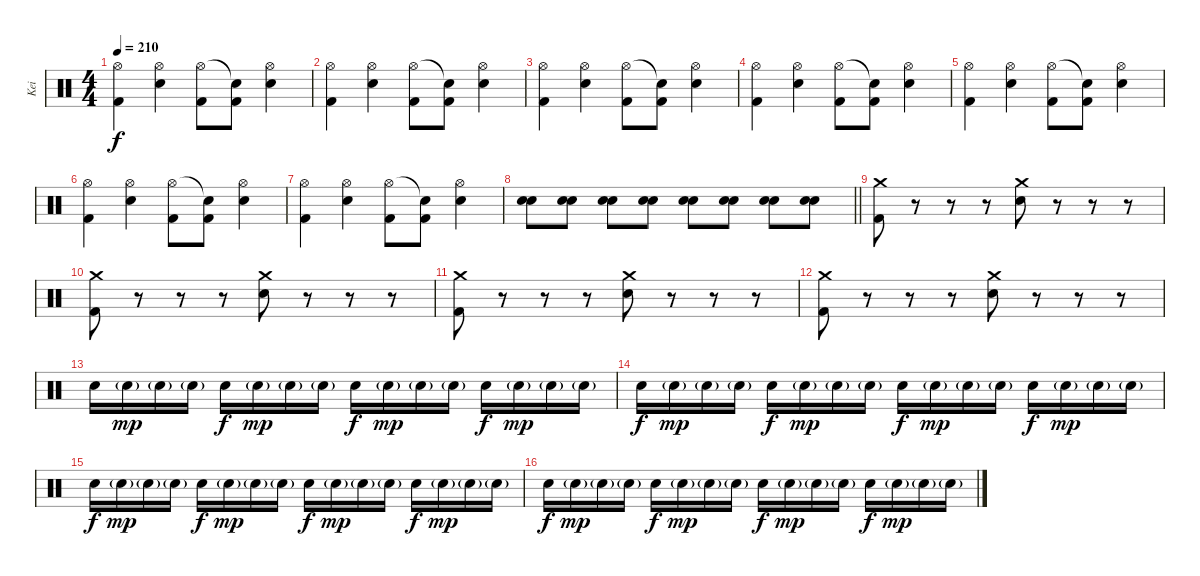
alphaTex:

\track ("Kei" "Kei") {instrument percussion}
\staff {score}
\articulation defaults
\ts (4 4)
\tempo 210
\clef neutral
\ks c
("Hi-Hat (open)" "Kick (hit) 2").4{dy f} ("Hi-Hat (open)" "Electric Snare (hit)").4 ("Hi-Hat (open)" "Kick (hit) 2").8 ("Snare (hit)"{t} "Kick (hit) 2").8 ("Hi-Hat (open)" "Electric Snare (hit)").4 |
("Hi-Hat (open)" "Kick (hit) 2").4 ("Hi-Hat (open)" "Electric Snare (hit)").4 ("Hi-Hat (open)" "Kick (hit) 2").8 ("Snare (hit)"{t} "Kick (hit) 2").8 ("Hi-Hat (open)" "Electric Snare (hit)").4 |
("Hi-Hat (open)" "Kick (hit) 2").4 ("Hi-Hat (open)" "Electric Snare (hit)").4 ("Hi-Hat (open)" "Kick (hit) 2").8 ("Snare (hit)"{t} "Kick (hit) 2").8 ("Hi-Hat (open)" "Electric Snare (hit)").4 |
("Hi-Hat (open)" "Kick (hit) 2").4 ("Hi-Hat (open)" "Electric Snare (hit)").4 ("Hi-Hat (open)" "Kick (hit) 2").8 ("Snare (hit)"{t} "Kick (hit) 2").8 ("Hi-Hat (open)" "Electric Snare (hit)").4 |
("Hi-Hat (open)" "Kick (hit) 2").4 ("Hi-Hat (open)" "Electric Snare (hit)").4 ("Hi-Hat (open)" "Kick (hit) 2").8 ("Snare (hit)"{t} "Kick (hit) 2").8 ("Hi-Hat (open)" "Electric Snare (hit)").4 |
("Hi-Hat (open)" "Kick (hit) 2").4 ("Hi-Hat (open)" "Electric Snare (hit)").4 ("Hi-Hat (open)" "Kick (hit) 2").8 ("Snare (hit)"{t} "Kick (hit) 2").8 ("Hi-Hat (open)" "Electric Snare (hit)").4 |
("Hi-Hat (open)" "Kick (hit) 2").4 ("Hi-Hat (open)" "Electric Snare (hit)").4 ("Hi-Hat (open)" "Kick (hit) 2").8 ("Snare (hit)"{t} "Kick (hit) 2").8 ("Hi-Hat (open)" "Electric Snare (hit)").4 |
\barLineRight lightlight
("Electric Snare (hit)" "Electric Snare (hit)").8 ("Electric Snare (hit)" "Electric Snare (hit)").8 ("Electric Snare (hit)" "Electric Snare (hit)").8 ("Electric Snare (hit)" "Electric Snare (hit)").8 ("Electric Snare (hit)" "Electric Snare (hit)").8 ("Electric Snare (hit)" "Electric Snare (hit)").8 ("Electric Snare (hit)" "Electric Snare (hit)").8 ("Electric Snare (hit)" "Electric Snare (hit)").8 |
("Crash medium (hit)" "Kick (hit) 2").8 r.8 r.8 r.8 ("Crash medium (hit)" "Electric Snare (hit)").8 r.8 r.8 r.8 |
("Crash medium (hit)" "Kick (hit) 2").8 r.8 r.8 r.8 ("Crash medium (hit)" "Electric Snare (hit)").8 r.8 r.8 r.8 |
("Crash medium (hit)" "Kick (hit) 2").8 r.8 r.8 r.8 ("Crash medium (hit)" "Electric Snare (hit)").8 r.8 r.8 r.8 |
("Crash medium (hit)" "Kick (hit) 2").8 r.8 r.8 r.8 ("Crash medium (hit)" "Electric Snare (hit)").8 r.8 r.8 r.8 |
"Electric Snare (hit)".16 "Electric Snare (hit)"{g}.16{dy mp} "Electric Snare (hit)"{g}.16 "Electric Snare (hit)"{g}.16 "Electric Snare (hit)".16{dy f} "Electric Snare (hit)"{g}.16{dy mp} "Electric Snare (hit)"{g}.16 "Electric Snare (hit)"{g}.16 "Electric Snare (hit)".16{dy f} "Electric Snare (hit)"{g}.16{dy mp} "Electric Snare (hit)"{g}.16 "Electric Snare (hit)"{g}.16 "Electric Snare (hit)".16{dy f} "Electric Snare (hit)"{g}.16{dy mp} "Electric Snare (hit)"{g}.16 "Electric Snare (hit)"{g}.16 |
"Electric Snare (hit)".16{dy f} "Electric Snare (hit)"{g}.16{dy mp} "Electric Snare (hit)"{g}.16 "Electric Snare (hit)"{g}.16 "Electric Snare (hit)".16{dy f} "Electric Snare (hit)"{g}.16{dy mp} "Electric Snare (hit)"{g}.16 "Electric Snare (hit)"{g}.16 "Electric Snare (hit)".16{dy f} "Electric Snare (hit)"{g}.16{dy mp} "Electric Snare (hit)"{g}.16 "Electric Snare (hit)"{g}.16 "Electric Snare (hit)".16{dy f} "Electric Snare (hit)"{g}.16{dy mp} "Electric Snare (hit)"{g}.16 "Electric Snare (hit)"{g}.16 |
"Electric Snare (hit)".16{dy f} "Electric Snare (hit)"{g}.16{dy mp} "Electric Snare (hit)"{g}.16 "Electric Snare (hit)"{g}.16 "Electric Snare (hit)".16{dy f} "Electric Snare (hit)"{g}.16{dy mp} "Electric Snare (hit)"{g}.16 "Electric Snare (hit)"{g}.16 "Electric Snare (hit)".16{dy f} "Electric Snare (hit)"{g}.16{dy mp} "Electric Snare (hit)"{g}.16 "Electric Snare (hit)"{g}.16 "Electric Snare (hit)".16{dy f} "Electric Snare (hit)"{g}.16{dy mp} "Electric Snare (hit)"{g}.16 "Electric Snare (hit)"{g}.16 |
"Electric Snare (hit)".16{dy f} "Electric Snare (hit)"{g}.16{dy mp} "Electric Snare (hit)"{g}.16 "Electric Snare (hit)"{g}.16 "Electric Snare (hit)".16{dy f} "Electric Snare (hit)"{g}.16{dy mp} "Electric Snare (hit)"{g}.16 "Electric Snare (hit)"{g}.16 "Electric Snare (hit)".16{dy f} "Electric Snare (hit)"{g}.16{dy mp} "Electric Snare (hit)"{g}.16 "Electric Snare (hit)"{g}.16 "Electric Snare (hit)".16{dy f} "Electric Snare (hit)"{g}.16{dy mp} "Electric Snare (hit)"{g}.16 "Electric Snare (hit)"{g}.16
